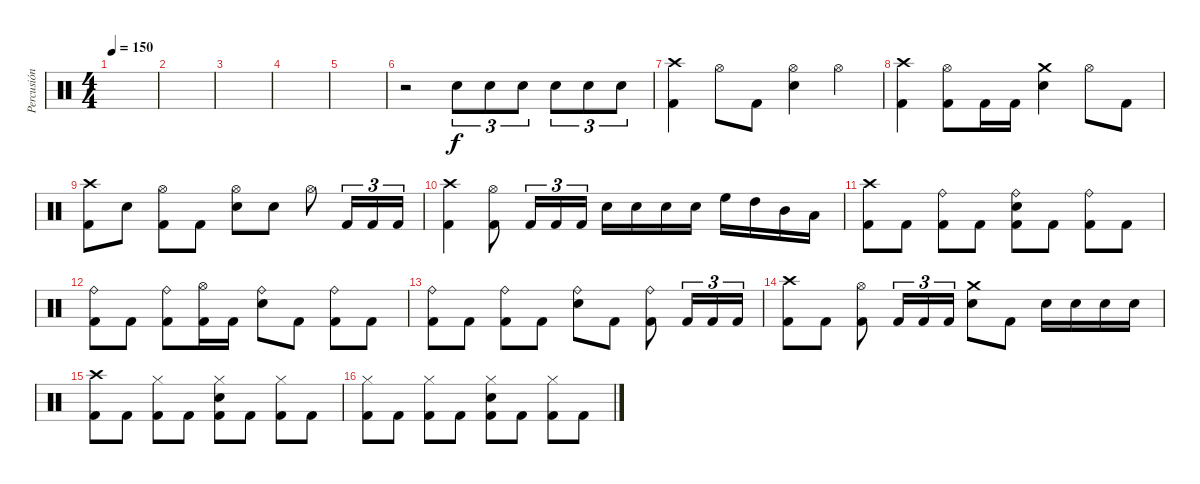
\track ("Percusión" "Percusión") {instrument percussion}
\staff {score}
\articulation defaults
\ts (4 4)
\tempo 150
\clef neutral
\ks c
|
|
|
|
|
r.2 "Snare (hit) 2".8{tu (3 2)} "Snare (hit) 2".8{tu (3 2)} "Snare (hit) 2".8{tu (3 2)} "Snare (hit) 2".8{tu (3 2)} "Snare (hit) 2".8{tu (3 2)} "Snare (hit) 2".8{tu (3 2)} |
("Crash high (hit)" "Kick (hit) 2").4 "Hi-Hat (open)".8 "Kick (hit) 2".8 ("Hi-Hat (open)" "Snare (hit) 2").4 "Hi-Hat (open)".4 |
("Crash high (hit)" "Kick (hit) 2").4 ("Hi-Hat (open)" "Kick (hit) 2").8 "Kick (hit) 2".16 "Kick (hit) 2".16 ("Crash medium (hit)" "Snare (hit) 2").4 "Hi-Hat (open)".8 "Kick (hit) 2".8 |
("Crash high (hit)" "Kick (hit) 2").8 "Snare (hit) 2".8 ("Hi-Hat (open)" "Kick (hit) 2").8 "Kick (hit) 2".8 ("Hi-Hat (open)" "Snare (hit) 2").8 "Snare (hit) 2".8 "Hi-Hat (open)".8 "Kick (hit) 2".16{tu (3 2)} "Kick (hit) 2".16{tu (3 2)} "Kick (hit) 2".16{tu (3 2)} |
("Crash high (hit)" "Kick (hit) 2").4 ("Hi-Hat (open)" "Kick (hit) 2").8 "Kick (hit) 2".16{tu (3 2)} "Kick (hit) 2".16{tu (3 2)} "Kick (hit) 2".16{tu (3 2)} "Snare (hit) 2".16 "Snare (hit) 2".16 "Snare (hit) 2".16 "Snare (hit) 2".16 "High Floor Tom (hit)".16 "High Tom (hit)".16 "Mid Tom (hit)".16 "Low Tom (hit)".16 |
("Crash high (hit)" "Kick (hit) 2").8 "Kick (hit) 2".8 ("Ride (bell)" "Kick (hit) 2").8 "Kick (hit) 2".8 ("Ride (bell)" "Snare (hit) 2" "Kick (hit) 2").8 "Kick (hit) 2".8 ("Ride (bell)" "Kick (hit) 2").8 "Kick (hit) 2".8 |
("Ride (bell)" "Kick (hit) 2").8 "Kick (hit) 2".8 ("Ride (bell)" "Kick (hit) 2").8 ("Hi-Hat (open)" "Kick (hit) 2").16 "Kick (hit) 2".16 ("Ride (bell)" "Snare (hit) 2").8 "Kick (hit) 2".8 ("Ride (bell)" "Kick (hit) 2").8 "Kick (hit) 2".8 |
("Ride (bell)" "Kick (hit) 2").8 "Kick (hit) 2".8 ("Ride (bell)" "Kick (hit) 2").8 "Kick (hit) 2".8 ("Ride (bell)" "Snare (hit) 2").8 "Kick (hit) 2".8 ("Ride (bell)" "Kick (hit) 2").8 "Kick (hit) 2".16{tu (3 2)} "Kick (hit) 2".16{tu (3 2)} "Kick (hit) 2".16{tu (3 2)} |
("Crash high (hit)" "Kick (hit) 2").8 "Kick (hit) 2".8 ("Hi-Hat (open)" "Kick (hit) 2").8 "Kick (hit) 2".16{tu (3 2)} "Kick (hit) 2".16{tu (3 2)} "Kick (hit) 2".16{tu (3 2)} ("Crash medium (hit)" "Snare (hit) 2").8 "Kick (hit) 2".8 "Snare (hit) 2".16 "Snare (hit) 2".16 "Snare (hit) 2".16 "Snare (hit) 2".16 |
("Crash high (hit)" "Kick (hit) 2").8 "Kick (hit) 2".8 ("Hi-Hat (closed)" "Kick (hit) 2").8 "Kick (hit) 2".8 ("Hi-Hat (closed)" "Snare (hit) 2" "Kick (hit) 2").8 "Kick (hit) 2".8 ("Hi-Hat (closed)" "Kick (hit) 2").8 "Kick (hit) 2".8 |
("Hi-Hat (closed)" "Kick (hit) 2").8 "Kick (hit) 2".8 ("Hi-Hat (closed)" "Kick (hit) 2").8 "Kick (hit) 2".8 ("Hi-Hat (closed)" "Snare (hit) 2" "Kick (hit) 2").8 "Kick (hit) 2".8 ("Hi-Hat (closed)" "Kick (hit) 2").8 "Kick (hit) 2".8
